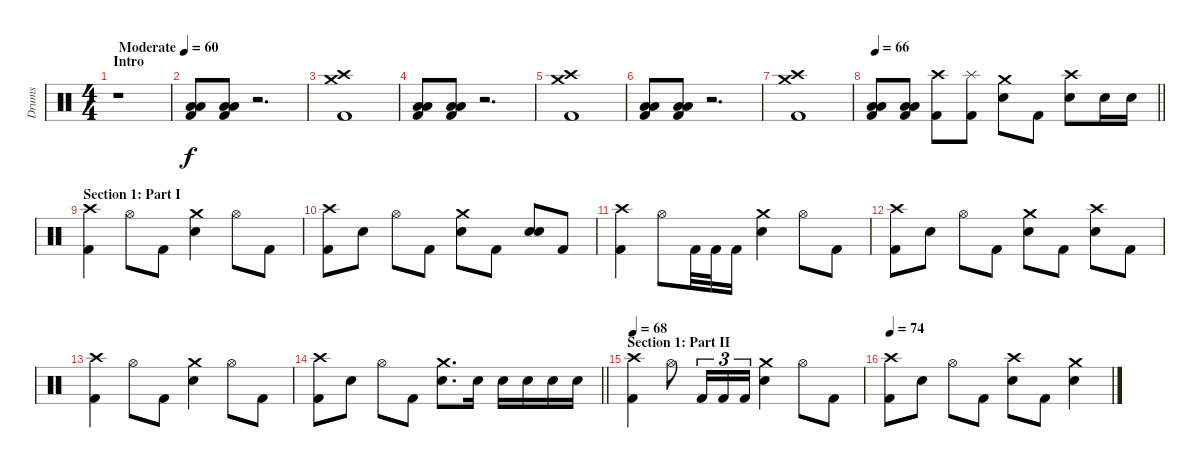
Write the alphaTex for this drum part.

\track ("Drums" "Drums") {instrument percussion}
\staff {score}
\articulation defaults
\ts (4 4)
\section ("" "Intro")
\tempo (60 "Moderate")
\clef neutral
\ks c
r.1{dy f} |
("Low Tom (hit)" "Low Tom (hit)" "Kick (hit) 2").8 ("Low Tom (hit)" "Low Tom (hit)" "Kick (hit) 2").8 r.2{d} |
("Crash high (hit)" "Crash medium (hit)" "Kick (hit) 2").1 |
("Low Tom (hit)" "Low Tom (hit)" "Kick (hit) 2").8 ("Low Tom (hit)" "Low Tom (hit)" "Kick (hit) 2").8 r.2{d} |
("Crash high (hit)" "Crash medium (hit)" "Kick (hit) 2").1 |
("Low Tom (hit)" "Low Tom (hit)" "Kick (hit) 2").8 ("Low Tom (hit)" "Low Tom (hit)" "Kick (hit) 2").8 r.2{d} |
("Crash high (hit)" "Crash medium (hit)" "Kick (hit) 2").1 |
\tempo 66
\barLineRight lightlight
("Low Tom (hit)" "Low Tom (hit)" "Kick (hit) 2").8 ("Low Tom (hit)" "Low Tom (hit)" "Kick (hit) 2").8 ("Crash high (hit)" "Kick (hit) 2").8 ("Splash (hit)" "Kick (hit) 2").8 ("Crash medium (hit)" "Electric Snare (hit)").8 "Kick (hit) 2".8 ("Crash high (hit)" "Electric Snare (hit)").8 "Electric Snare (hit)".16 "Electric Snare (hit)".16 |
\section ("" "Section 1: Part I")
("Crash high (hit)" "Kick (hit) 2").4 "Hi-Hat (open)".8 "Kick (hit) 2".8 ("Crash medium (hit)" "Electric Snare (hit)").4 "Hi-Hat (open)".8 "Kick (hit) 2".8 |
("Crash high (hit)" "Kick (hit) 2").8 "Electric Snare (hit)".8 "Hi-Hat (open)".8 "Kick (hit) 2".8 ("Crash medium (hit)" "Electric Snare (hit)").8 "Kick (hit) 2".8 ("Electric Snare (hit)" "Electric Snare (hit)").8{bu 30} "Kick (hit) 2".8 |
("Crash high (hit)" "Kick (hit) 2").4 "Hi-Hat (open)".8 "Kick (hit) 2".32 "Kick (hit) 2".32 "Kick (hit) 2".16 ("Crash medium (hit)" "Electric Snare (hit)").4 "Hi-Hat (open)".8 "Kick (hit) 2".8 |
("Crash high (hit)" "Kick (hit) 2").8 "Electric Snare (hit)".8 "Hi-Hat (open)".8 "Kick (hit) 2".8 ("Crash medium (hit)" "Electric Snare (hit)").8 "Kick (hit) 2".8 ("Crash high (hit)" "Electric Snare (hit)").8 "Kick (hit) 2".8 |
("Crash high (hit)" "Kick (hit) 2").4 "Hi-Hat (open)".8 "Kick (hit) 2".8 ("Crash medium (hit)" "Electric Snare (hit)").4 "Hi-Hat (open)".8 "Kick (hit) 2".8 |
\barLineRight lightlight
("Crash high (hit)" "Kick (hit) 2").8 "Electric Snare (hit)".8 "Hi-Hat (open)".8 "Kick (hit) 2".8 ("Crash medium (hit)" "Electric Snare (hit)").8{d} "Electric Snare (hit)".16 "Electric Snare (hit)".16 "Electric Snare (hit)".16 "Electric Snare (hit)".16 "Electric Snare (hit)".16 |
\section ("" "Section 1: Part II")
\tempo 68
("Crash high (hit)" "Kick (hit) 2").4 "Hi-Hat (open)".8 "Kick (hit) 2".16{tu (3 2)} "Kick (hit) 2".16{tu (3 2)} "Kick (hit) 2".16{tu (3 2)} ("Crash medium (hit)" "Electric Snare (hit)").4 "Hi-Hat (open)".8 "Kick (hit) 2".8 |
\tempo 74
("Crash high (hit)" "Kick (hit) 2").8 "Electric Snare (hit)".8 "Hi-Hat (open)".8 "Kick (hit) 2".8 ("Crash high (hit)" "Electric Snare (hit)").8 "Kick (hit) 2".8 ("Crash medium (hit)" "Electric Snare (hit)").4
